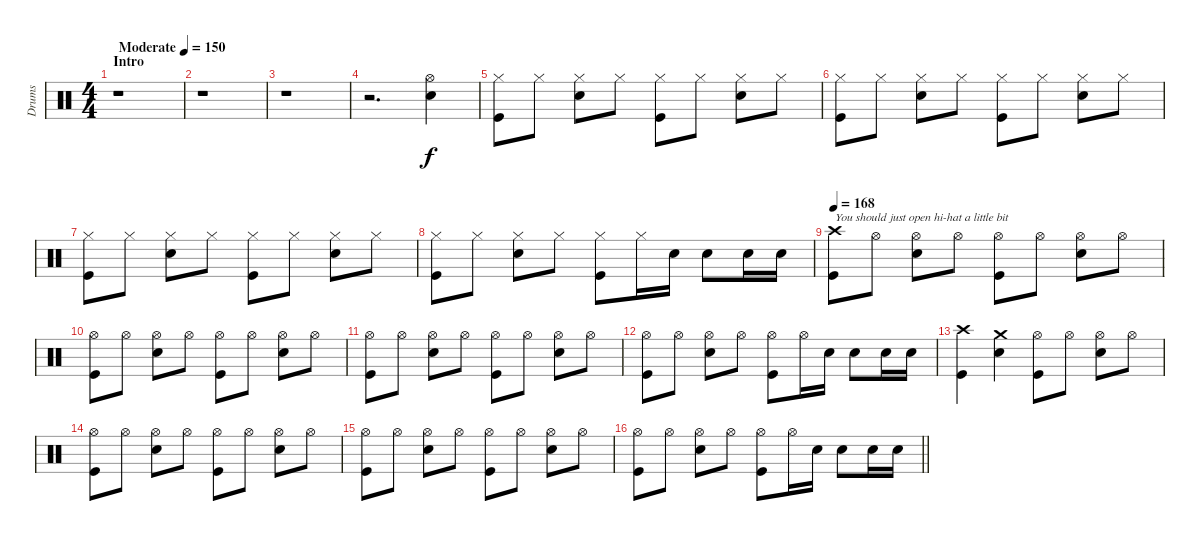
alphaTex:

\track ("Drums" "Drums") {instrument percussion}
\staff {score}
\articulation defaults
\ts (4 4)
\section ("" "Intro")
\tempo (150 "Moderate")
\clef neutral
\ks c
r.1{dy f} |
r.1 |
r.1 |
r.2{d} ("Hi-Hat (open)" "Snare (hit) 2").4 |
("Hi-Hat (closed)" "Kick (hit)").8 "Hi-Hat (closed)".8 ("Hi-Hat (closed)" "Snare (hit) 2").8 "Hi-Hat (closed)".8 ("Hi-Hat (closed)" "Kick (hit)").8 "Hi-Hat (closed)".8 ("Hi-Hat (closed)" "Snare (hit) 2").8 "Hi-Hat (closed)".8 |
("Hi-Hat (closed)" "Kick (hit)").8 "Hi-Hat (closed)".8 ("Hi-Hat (closed)" "Snare (hit) 2").8 "Hi-Hat (closed)".8 ("Hi-Hat (closed)" "Kick (hit)").8 "Hi-Hat (closed)".8 ("Hi-Hat (closed)" "Snare (hit) 2").8 "Hi-Hat (closed)".8 |
("Hi-Hat (closed)" "Kick (hit)").8 "Hi-Hat (closed)".8 ("Hi-Hat (closed)" "Snare (hit) 2").8 "Hi-Hat (closed)".8 ("Hi-Hat (closed)" "Kick (hit)").8 "Hi-Hat (closed)".8 ("Hi-Hat (closed)" "Snare (hit) 2").8 "Hi-Hat (closed)".8 |
("Hi-Hat (closed)" "Kick (hit)").8 "Hi-Hat (closed)".8 ("Hi-Hat (closed)" "Snare (hit) 2").8 "Hi-Hat (closed)".8 ("Hi-Hat (closed)" "Kick (hit)").8 "Hi-Hat (closed)".16 "Snare (hit) 2".16 "Snare (hit) 2".8 "Snare (hit) 2".16 "Snare (hit) 2".16 |
\tempo 168
("Crash high (hit)" "Kick (hit)").8{txt "You should just open hi-hat a little bit"} "Hi-Hat (open)".8 ("Hi-Hat (open)" "Snare (hit) 2").8 "Hi-Hat (open)".8 ("Hi-Hat (open)" "Kick (hit)").8 "Hi-Hat (open)".8 ("Hi-Hat (open)" "Snare (hit) 2").8 "Hi-Hat (open)".8 |
("Hi-Hat (open)" "Kick (hit)").8 "Hi-Hat (open)".8 ("Hi-Hat (open)" "Snare (hit) 2").8 "Hi-Hat (open)".8 ("Hi-Hat (open)" "Kick (hit)").8 "Hi-Hat (open)".8 ("Hi-Hat (open)" "Snare (hit) 2").8 "Hi-Hat (open)".8 |
("Hi-Hat (open)" "Kick (hit)").8 "Hi-Hat (open)".8 ("Hi-Hat (open)" "Snare (hit) 2").8 "Hi-Hat (open)".8 ("Hi-Hat (open)" "Kick (hit)").8 "Hi-Hat (open)".8 ("Hi-Hat (open)" "Snare (hit) 2").8 "Hi-Hat (open)".8 |
("Hi-Hat (open)" "Kick (hit)").8 "Hi-Hat (open)".8 ("Hi-Hat (open)" "Snare (hit) 2").8 "Hi-Hat (open)".8 ("Hi-Hat (open)" "Kick (hit)").8 "Hi-Hat (open)".16 "Snare (hit) 2".16 "Snare (hit) 2".8 "Snare (hit) 2".16 "Snare (hit) 2".16 |
("Crash high (hit)" "Kick (hit)").4 ("Crash medium (hit)" "Snare (hit) 2").4 ("Hi-Hat (open)" "Kick (hit)").8 "Hi-Hat (open)".8 ("Hi-Hat (open)" "Snare (hit) 2").8 "Hi-Hat (open)".8 |
("Hi-Hat (open)" "Kick (hit)").8 "Hi-Hat (open)".8 ("Hi-Hat (open)" "Snare (hit) 2").8 "Hi-Hat (open)".8 ("Hi-Hat (open)" "Kick (hit)").8 "Hi-Hat (open)".8 ("Hi-Hat (open)" "Snare (hit) 2").8 "Hi-Hat (open)".8 |
("Hi-Hat (open)" "Kick (hit)").8 "Hi-Hat (open)".8 ("Hi-Hat (open)" "Snare (hit) 2").8 "Hi-Hat (open)".8 ("Hi-Hat (open)" "Kick (hit)").8 "Hi-Hat (open)".8 ("Hi-Hat (open)" "Snare (hit) 2").8 "Hi-Hat (open)".8 |
\barLineRight lightlight
("Hi-Hat (open)" "Kick (hit)").8 "Hi-Hat (open)".8 ("Hi-Hat (open)" "Snare (hit) 2").8 "Hi-Hat (open)".8 ("Hi-Hat (open)" "Kick (hit)").8 "Hi-Hat (open)".16 "Snare (hit) 2".16 "Snare (hit) 2".8 "Snare (hit) 2".16 "Snare (hit) 2".16
